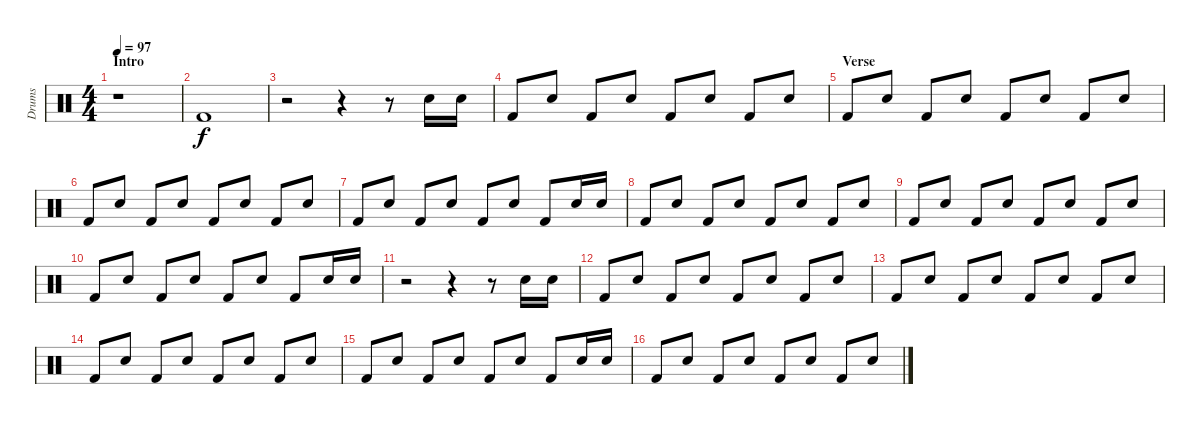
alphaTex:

\track ("Drums" "Drums") {instrument percussion}
\staff {score}
\articulation defaults
\ts (4 4)
\section ("" "Intro")
\tempo 97
\clef neutral
\ks c
r.1{dy f} |
"Kick (hit) 2".1 |
r.2 r.4 r.8 "Electric Snare (hit)".16 "Electric Snare (hit)".16 |
"Kick (hit) 2".8 "Electric Snare (hit)".8 "Kick (hit) 2".8 "Electric Snare (hit)".8 "Kick (hit) 2".8 "Electric Snare (hit)".8 "Kick (hit) 2".8 "Electric Snare (hit)".8 |
\section ("" "Verse")
"Kick (hit) 2".8 "Electric Snare (hit)".8 "Kick (hit) 2".8 "Electric Snare (hit)".8 "Kick (hit) 2".8 "Electric Snare (hit)".8 "Kick (hit) 2".8 "Electric Snare (hit)".8 |
"Kick (hit) 2".8 "Electric Snare (hit)".8 "Kick (hit) 2".8 "Electric Snare (hit)".8 "Kick (hit) 2".8 "Electric Snare (hit)".8 "Kick (hit) 2".8 "Electric Snare (hit)".8 |
"Kick (hit) 2".8 "Electric Snare (hit)".8 "Kick (hit) 2".8 "Electric Snare (hit)".8 "Kick (hit) 2".8 "Electric Snare (hit)".8 "Kick (hit) 2".8 "Electric Snare (hit)".16 "Electric Snare (hit)".16 |
"Kick (hit) 2".8 "Electric Snare (hit)".8 "Kick (hit) 2".8 "Electric Snare (hit)".8 "Kick (hit) 2".8 "Electric Snare (hit)".8 "Kick (hit) 2".8 "Electric Snare (hit)".8 |
"Kick (hit) 2".8 "Electric Snare (hit)".8 "Kick (hit) 2".8 "Electric Snare (hit)".8 "Kick (hit) 2".8 "Electric Snare (hit)".8 "Kick (hit) 2".8 "Electric Snare (hit)".8 |
"Kick (hit) 2".8 "Electric Snare (hit)".8 "Kick (hit) 2".8 "Electric Snare (hit)".8 "Kick (hit) 2".8 "Electric Snare (hit)".8 "Kick (hit) 2".8 "Electric Snare (hit)".16 "Electric Snare (hit)".16 |
r.2 r.4 r.8 "Electric Snare (hit)".16 "Electric Snare (hit)".16 |
"Kick (hit) 2".8 "Electric Snare (hit)".8 "Kick (hit) 2".8 "Electric Snare (hit)".8 "Kick (hit) 2".8 "Electric Snare (hit)".8 "Kick (hit) 2".8 "Electric Snare (hit)".8 |
"Kick (hit) 2".8 "Electric Snare (hit)".8 "Kick (hit) 2".8 "Electric Snare (hit)".8 "Kick (hit) 2".8 "Electric Snare (hit)".8 "Kick (hit) 2".8 "Electric Snare (hit)".8 |
"Kick (hit) 2".8 "Electric Snare (hit)".8 "Kick (hit) 2".8 "Electric Snare (hit)".8 "Kick (hit) 2".8 "Electric Snare (hit)".8 "Kick (hit) 2".8 "Electric Snare (hit)".8 |
"Kick (hit) 2".8 "Electric Snare (hit)".8 "Kick (hit) 2".8 "Electric Snare (hit)".8 "Kick (hit) 2".8 "Electric Snare (hit)".8 "Kick (hit) 2".8 "Electric Snare (hit)".16 "Electric Snare (hit)".16 |
"Kick (hit) 2".8 "Electric Snare (hit)".8 "Kick (hit) 2".8 "Electric Snare (hit)".8 "Kick (hit) 2".8 "Electric Snare (hit)".8 "Kick (hit) 2".8 "Electric Snare (hit)".8
